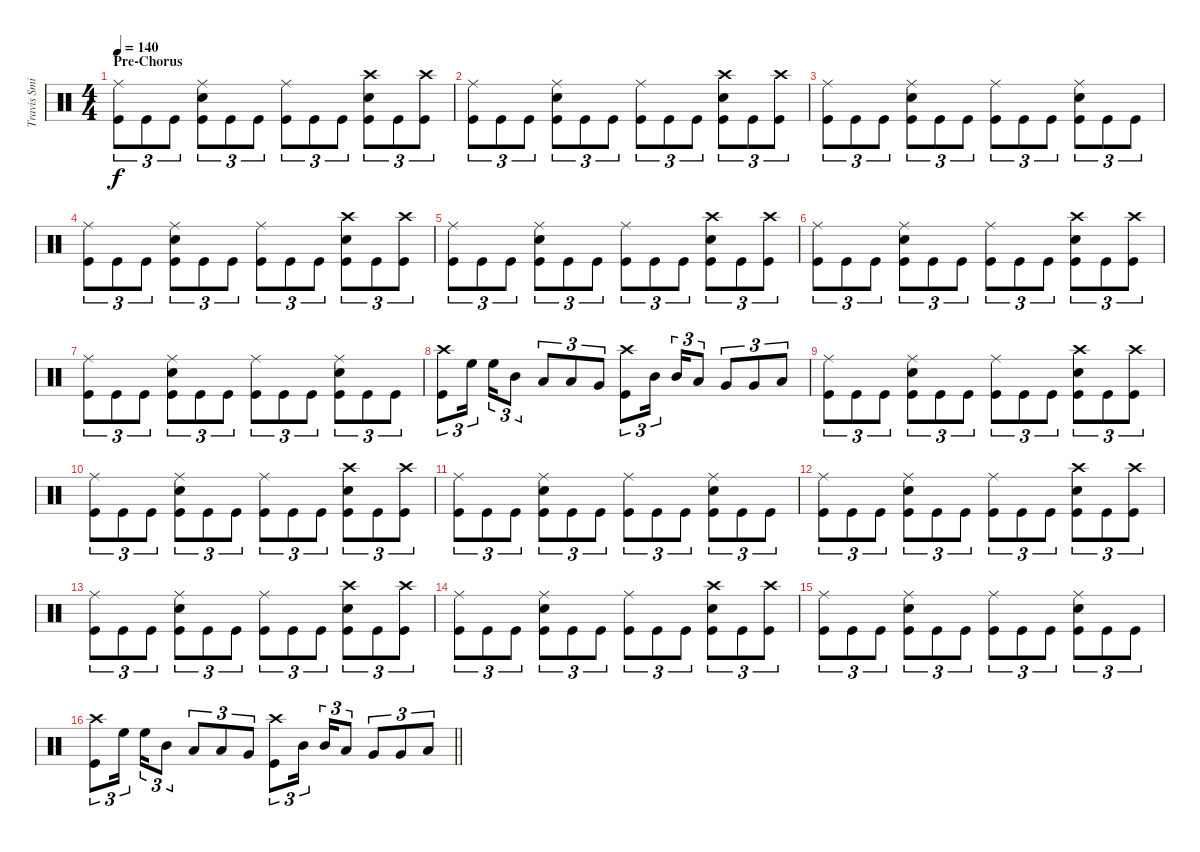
\track ("Travis Smith" "Travis Smi") {instrument percussion}
\staff {score}
\articulation defaults
\ts (4 4)
\section ("" "Pre-Chorus")
\tempo 140
\clef neutral
\ks c
("Ride (middle)" "Kick (hit)").8{tu (3 2) dy f} "Kick (hit)".8{tu (3 2)} "Kick (hit)".8{tu (3 2)} ("Ride (middle)" "Snare (hit) 2" "Kick (hit)").8{tu (3 2)} "Kick (hit)".8{tu (3 2)} "Kick (hit)".8{tu (3 2)} ("Ride (middle)" "Kick (hit)").8{tu (3 2)} "Kick (hit)".8{tu (3 2)} "Kick (hit)".8{tu (3 2)} ("Crash high (hit)" "Snare (hit) 2" "Kick (hit)").8{tu (3 2)} "Kick (hit)".8{tu (3 2)} ("Crash high (hit)" "Kick (hit)").8{tu (3 2)} |
("Ride (middle)" "Kick (hit)").8{tu (3 2)} "Kick (hit)".8{tu (3 2)} "Kick (hit)".8{tu (3 2)} ("Ride (middle)" "Snare (hit) 2" "Kick (hit)").8{tu (3 2)} "Kick (hit)".8{tu (3 2)} "Kick (hit)".8{tu (3 2)} ("Ride (middle)" "Kick (hit)").8{tu (3 2)} "Kick (hit)".8{tu (3 2)} "Kick (hit)".8{tu (3 2)} ("Crash high (hit)" "Snare (hit) 2" "Kick (hit)").8{tu (3 2)} "Kick (hit)".8{tu (3 2)} ("Crash high (hit)" "Kick (hit)").8{tu (3 2)} |
("Ride (middle)" "Kick (hit)").8{tu (3 2)} "Kick (hit)".8{tu (3 2)} "Kick (hit)".8{tu (3 2)} ("Ride (middle)" "Snare (hit) 2" "Kick (hit)").8{tu (3 2)} "Kick (hit)".8{tu (3 2)} "Kick (hit)".8{tu (3 2)} ("Ride (middle)" "Kick (hit)").8{tu (3 2)} "Kick (hit)".8{tu (3 2)} "Kick (hit)".8{tu (3 2)} ("Ride (middle)" "Snare (hit) 2" "Kick (hit)").8{tu (3 2)} "Kick (hit)".8{tu (3 2)} "Kick (hit)".8{tu (3 2)} |
("Ride (middle)" "Kick (hit)").8{tu (3 2)} "Kick (hit)".8{tu (3 2)} "Kick (hit)".8{tu (3 2)} ("Ride (middle)" "Snare (hit) 2" "Kick (hit)").8{tu (3 2)} "Kick (hit)".8{tu (3 2)} "Kick (hit)".8{tu (3 2)} ("Ride (middle)" "Kick (hit)").8{tu (3 2)} "Kick (hit)".8{tu (3 2)} "Kick (hit)".8{tu (3 2)} ("Crash high (hit)" "Snare (hit) 2" "Kick (hit)").8{tu (3 2)} "Kick (hit)".8{tu (3 2)} ("Crash high (hit)" "Kick (hit)").8{tu (3 2)} |
("Ride (middle)" "Kick (hit)").8{tu (3 2)} "Kick (hit)".8{tu (3 2)} "Kick (hit)".8{tu (3 2)} ("Ride (middle)" "Snare (hit) 2" "Kick (hit)").8{tu (3 2)} "Kick (hit)".8{tu (3 2)} "Kick (hit)".8{tu (3 2)} ("Ride (middle)" "Kick (hit)").8{tu (3 2)} "Kick (hit)".8{tu (3 2)} "Kick (hit)".8{tu (3 2)} ("Crash high (hit)" "Snare (hit) 2" "Kick (hit)").8{tu (3 2)} "Kick (hit)".8{tu (3 2)} ("Crash high (hit)" "Kick (hit)").8{tu (3 2)} |
("Ride (middle)" "Kick (hit)").8{tu (3 2)} "Kick (hit)".8{tu (3 2)} "Kick (hit)".8{tu (3 2)} ("Ride (middle)" "Snare (hit) 2" "Kick (hit)").8{tu (3 2)} "Kick (hit)".8{tu (3 2)} "Kick (hit)".8{tu (3 2)} ("Ride (middle)" "Kick (hit)").8{tu (3 2)} "Kick (hit)".8{tu (3 2)} "Kick (hit)".8{tu (3 2)} ("Crash high (hit)" "Snare (hit) 2" "Kick (hit)").8{tu (3 2)} "Kick (hit)".8{tu (3 2)} ("Crash high (hit)" "Kick (hit)").8{tu (3 2)} |
("Ride (middle)" "Kick (hit)").8{tu (3 2)} "Kick (hit)".8{tu (3 2)} "Kick (hit)".8{tu (3 2)} ("Ride (middle)" "Snare (hit) 2" "Kick (hit)").8{tu (3 2)} "Kick (hit)".8{tu (3 2)} "Kick (hit)".8{tu (3 2)} ("Ride (middle)" "Kick (hit)").8{tu (3 2)} "Kick (hit)".8{tu (3 2)} "Kick (hit)".8{tu (3 2)} ("Ride (middle)" "Snare (hit) 2" "Kick (hit)").8{tu (3 2)} "Kick (hit)".8{tu (3 2)} "Kick (hit)".8{tu (3 2)} |
("Crash high (hit)" "Kick (hit)").8{tu (3 2)} "High Floor Tom (hit)".16{tu (3 2) beam splitsecondary} "High Floor Tom (hit)".16{tu (3 2)} "Mid Tom (hit)".8{tu (3 2)} "Low Tom (hit)".8{tu (3 2)} "Low Tom (hit)".8{tu (3 2)} "Very Low Tom (hit)".8{tu (3 2)} ("Crash high (hit)" "Kick (hit)").8{tu (3 2)} "Mid Tom (hit)".16{tu (3 2) beam splitsecondary} "Mid Tom (hit)".16{tu (3 2)} "Low Tom (hit)".8{tu (3 2)} "Very Low Tom (hit)".8{tu (3 2)} "Very Low Tom (hit)".8{tu (3 2)} "Low Floor Tom (hit)".8{tu (3 2)} |
("Ride (middle)" "Kick (hit)").8{tu (3 2)} "Kick (hit)".8{tu (3 2)} "Kick (hit)".8{tu (3 2)} ("Ride (middle)" "Snare (hit) 2" "Kick (hit)").8{tu (3 2)} "Kick (hit)".8{tu (3 2)} "Kick (hit)".8{tu (3 2)} ("Ride (middle)" "Kick (hit)").8{tu (3 2)} "Kick (hit)".8{tu (3 2)} "Kick (hit)".8{tu (3 2)} ("Crash high (hit)" "Snare (hit) 2" "Kick (hit)").8{tu (3 2)} "Kick (hit)".8{tu (3 2)} ("Crash high (hit)" "Kick (hit)").8{tu (3 2)} |
("Ride (middle)" "Kick (hit)").8{tu (3 2)} "Kick (hit)".8{tu (3 2)} "Kick (hit)".8{tu (3 2)} ("Ride (middle)" "Snare (hit) 2" "Kick (hit)").8{tu (3 2)} "Kick (hit)".8{tu (3 2)} "Kick (hit)".8{tu (3 2)} ("Ride (middle)" "Kick (hit)").8{tu (3 2)} "Kick (hit)".8{tu (3 2)} "Kick (hit)".8{tu (3 2)} ("Crash high (hit)" "Snare (hit) 2" "Kick (hit)").8{tu (3 2)} "Kick (hit)".8{tu (3 2)} ("Crash high (hit)" "Kick (hit)").8{tu (3 2)} |
("Ride (middle)" "Kick (hit)").8{tu (3 2)} "Kick (hit)".8{tu (3 2)} "Kick (hit)".8{tu (3 2)} ("Ride (middle)" "Snare (hit) 2" "Kick (hit)").8{tu (3 2)} "Kick (hit)".8{tu (3 2)} "Kick (hit)".8{tu (3 2)} ("Ride (middle)" "Kick (hit)").8{tu (3 2)} "Kick (hit)".8{tu (3 2)} "Kick (hit)".8{tu (3 2)} ("Ride (middle)" "Snare (hit) 2" "Kick (hit)").8{tu (3 2)} "Kick (hit)".8{tu (3 2)} "Kick (hit)".8{tu (3 2)} |
("Ride (middle)" "Kick (hit)").8{tu (3 2)} "Kick (hit)".8{tu (3 2)} "Kick (hit)".8{tu (3 2)} ("Ride (middle)" "Snare (hit) 2" "Kick (hit)").8{tu (3 2)} "Kick (hit)".8{tu (3 2)} "Kick (hit)".8{tu (3 2)} ("Ride (middle)" "Kick (hit)").8{tu (3 2)} "Kick (hit)".8{tu (3 2)} "Kick (hit)".8{tu (3 2)} ("Crash high (hit)" "Snare (hit) 2" "Kick (hit)").8{tu (3 2)} "Kick (hit)".8{tu (3 2)} ("Crash high (hit)" "Kick (hit)").8{tu (3 2)} |
("Ride (middle)" "Kick (hit)").8{tu (3 2)} "Kick (hit)".8{tu (3 2)} "Kick (hit)".8{tu (3 2)} ("Ride (middle)" "Snare (hit) 2" "Kick (hit)").8{tu (3 2)} "Kick (hit)".8{tu (3 2)} "Kick (hit)".8{tu (3 2)} ("Ride (middle)" "Kick (hit)").8{tu (3 2)} "Kick (hit)".8{tu (3 2)} "Kick (hit)".8{tu (3 2)} ("Crash high (hit)" "Snare (hit) 2" "Kick (hit)").8{tu (3 2)} "Kick (hit)".8{tu (3 2)} ("Crash high (hit)" "Kick (hit)").8{tu (3 2)} |
("Ride (middle)" "Kick (hit)").8{tu (3 2)} "Kick (hit)".8{tu (3 2)} "Kick (hit)".8{tu (3 2)} ("Ride (middle)" "Snare (hit) 2" "Kick (hit)").8{tu (3 2)} "Kick (hit)".8{tu (3 2)} "Kick (hit)".8{tu (3 2)} ("Ride (middle)" "Kick (hit)").8{tu (3 2)} "Kick (hit)".8{tu (3 2)} "Kick (hit)".8{tu (3 2)} ("Crash high (hit)" "Snare (hit) 2" "Kick (hit)").8{tu (3 2)} "Kick (hit)".8{tu (3 2)} ("Crash high (hit)" "Kick (hit)").8{tu (3 2)} |
("Ride (middle)" "Kick (hit)").8{tu (3 2)} "Kick (hit)".8{tu (3 2)} "Kick (hit)".8{tu (3 2)} ("Ride (middle)" "Snare (hit) 2" "Kick (hit)").8{tu (3 2)} "Kick (hit)".8{tu (3 2)} "Kick (hit)".8{tu (3 2)} ("Ride (middle)" "Kick (hit)").8{tu (3 2)} "Kick (hit)".8{tu (3 2)} "Kick (hit)".8{tu (3 2)} ("Ride (middle)" "Snare (hit) 2" "Kick (hit)").8{tu (3 2)} "Kick (hit)".8{tu (3 2)} "Kick (hit)".8{tu (3 2)} |
\barLineRight lightlight
("Crash high (hit)" "Kick (hit)").8{tu (3 2)} "High Floor Tom (hit)".16{tu (3 2) beam splitsecondary} "High Floor Tom (hit)".16{tu (3 2)} "Mid Tom (hit)".8{tu (3 2)} "Low Tom (hit)".8{tu (3 2)} "Low Tom (hit)".8{tu (3 2)} "Very Low Tom (hit)".8{tu (3 2)} ("Crash high (hit)" "Kick (hit)").8{tu (3 2)} "Mid Tom (hit)".16{tu (3 2) beam splitsecondary} "Mid Tom (hit)".16{tu (3 2)} "Low Tom (hit)".8{tu (3 2)} "Very Low Tom (hit)".8{tu (3 2)} "Very Low Tom (hit)".8{tu (3 2)} "Low Floor Tom (hit)".8{tu (3 2)}
